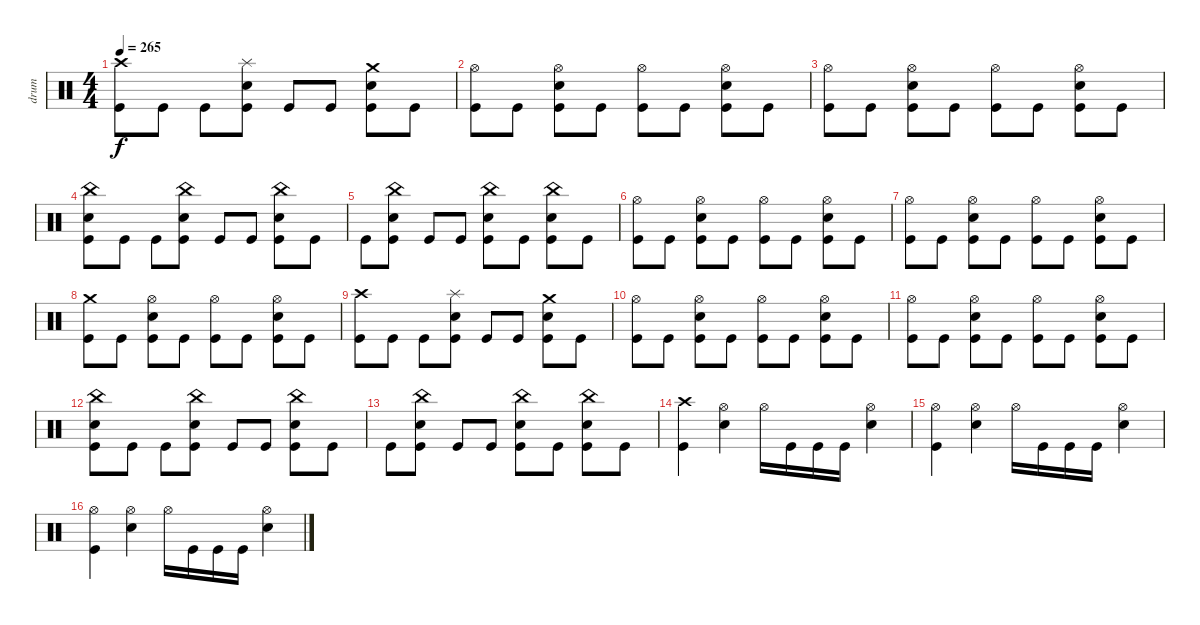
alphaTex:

\track ("drum" "drum") {instrument percussion}
\staff {score}
\articulation defaults
\ts (4 4)
\tempo 265
\clef neutral
\ks c
("Kick (hit)" "Crash high (hit)").8{dy f} "Kick (hit)".8 "Kick (hit)".8 ("Kick (hit)" "Electric Snare (hit)" "Splash (hit)").8 "Kick (hit)".8 "Kick (hit)".8 ("Kick (hit)" "Electric Snare (hit)" "Crash medium (hit)").8 "Kick (hit)".8 |
("Kick (hit)" "Hi-Hat (open)").8 "Kick (hit)".8 ("Kick (hit)" "Electric Snare (hit)" "Hi-Hat (open)").8 "Kick (hit)".8 ("Kick (hit)" "Hi-Hat (open)").8 "Kick (hit)".8 ("Kick (hit)" "Electric Snare (hit)" "Hi-Hat (open)").8 "Kick (hit)".8 |
("Kick (hit)" "Hi-Hat (open)").8 "Kick (hit)".8 ("Kick (hit)" "Electric Snare (hit)" "Hi-Hat (open)").8 "Kick (hit)".8 ("Kick (hit)" "Hi-Hat (open)").8 "Kick (hit)".8 ("Kick (hit)" "Electric Snare (hit)" "Hi-Hat (open)").8 "Kick (hit)".8 |
("Kick (hit)" "Electric Snare (hit)" "China (hit)").8 "Kick (hit)".8 "Kick (hit)".8 ("Kick (hit)" "Electric Snare (hit)" "China (hit)").8 "Kick (hit)".8 "Kick (hit)".8 ("Kick (hit)" "Electric Snare (hit)" "China (hit)").8 "Kick (hit)".8 |
"Kick (hit)".8 ("Kick (hit)" "Electric Snare (hit)" "China (hit)").8 "Kick (hit)".8 "Kick (hit)".8 ("Kick (hit)" "Electric Snare (hit)" "China (hit)").8 "Kick (hit)".8 ("Kick (hit)" "Electric Snare (hit)" "China (hit)").8 "Kick (hit)".8 |
("Kick (hit)" "Hi-Hat (open)").8 "Kick (hit)".8 ("Kick (hit)" "Electric Snare (hit)" "Hi-Hat (open)").8 "Kick (hit)".8 ("Kick (hit)" "Hi-Hat (open)").8 "Kick (hit)".8 ("Kick (hit)" "Electric Snare (hit)" "Hi-Hat (open)").8 "Kick (hit)".8 |
("Kick (hit)" "Hi-Hat (open)").8 "Kick (hit)".8 ("Kick (hit)" "Electric Snare (hit)" "Hi-Hat (open)").8 "Kick (hit)".8 ("Kick (hit)" "Hi-Hat (open)").8 "Kick (hit)".8 ("Kick (hit)" "Electric Snare (hit)" "Hi-Hat (open)").8 "Kick (hit)".8 |
("Kick (hit)" "Crash medium (hit)").8 "Kick (hit)".8 ("Kick (hit)" "Electric Snare (hit)" "Hi-Hat (open)").8 "Kick (hit)".8 ("Kick (hit)" "Hi-Hat (open)").8 "Kick (hit)".8 ("Kick (hit)" "Electric Snare (hit)" "Hi-Hat (open)").8 "Kick (hit)".8 |
("Kick (hit)" "Crash high (hit)").8 "Kick (hit)".8 "Kick (hit)".8 ("Kick (hit)" "Electric Snare (hit)" "Splash (hit)").8 "Kick (hit)".8 "Kick (hit)".8 ("Kick (hit)" "Electric Snare (hit)" "Crash medium (hit)").8 "Kick (hit)".8 |
("Kick (hit)" "Hi-Hat (open)").8 "Kick (hit)".8 ("Kick (hit)" "Electric Snare (hit)" "Hi-Hat (open)").8 "Kick (hit)".8 ("Kick (hit)" "Hi-Hat (open)").8 "Kick (hit)".8 ("Kick (hit)" "Electric Snare (hit)" "Hi-Hat (open)").8 "Kick (hit)".8 |
("Kick (hit)" "Hi-Hat (open)").8 "Kick (hit)".8 ("Kick (hit)" "Electric Snare (hit)" "Hi-Hat (open)").8 "Kick (hit)".8 ("Kick (hit)" "Hi-Hat (open)").8 "Kick (hit)".8 ("Kick (hit)" "Electric Snare (hit)" "Hi-Hat (open)").8 "Kick (hit)".8 |
("Kick (hit)" "Electric Snare (hit)" "China (hit)").8 "Kick (hit)".8 "Kick (hit)".8 ("Kick (hit)" "Electric Snare (hit)" "China (hit)").8 "Kick (hit)".8 "Kick (hit)".8 ("Kick (hit)" "Electric Snare (hit)" "China (hit)").8 "Kick (hit)".8 |
"Kick (hit)".8 ("Kick (hit)" "Electric Snare (hit)" "China (hit)").8 "Kick (hit)".8 "Kick (hit)".8 ("Kick (hit)" "Electric Snare (hit)" "China (hit)").8 "Kick (hit)".8 ("Kick (hit)" "Electric Snare (hit)" "China (hit)").8 "Kick (hit)".8 |
("Kick (hit)" "Crash high (hit)").4 ("Electric Snare (hit)" "Hi-Hat (open)").4 "Hi-Hat (open)".16 "Kick (hit)".16 "Kick (hit)".16 "Kick (hit)".16 ("Electric Snare (hit)" "Hi-Hat (open)").4 |
("Kick (hit)" "Hi-Hat (open)").4 ("Electric Snare (hit)" "Hi-Hat (open)").4 "Hi-Hat (open)".16 "Kick (hit)".16 "Kick (hit)".16 "Kick (hit)".16 ("Electric Snare (hit)" "Hi-Hat (open)").4 |
("Kick (hit)" "Hi-Hat (open)").4 ("Electric Snare (hit)" "Hi-Hat (open)").4 "Hi-Hat (open)".16 "Kick (hit)".16 "Kick (hit)".16 "Kick (hit)".16 ("Electric Snare (hit)" "Hi-Hat (open)").4
